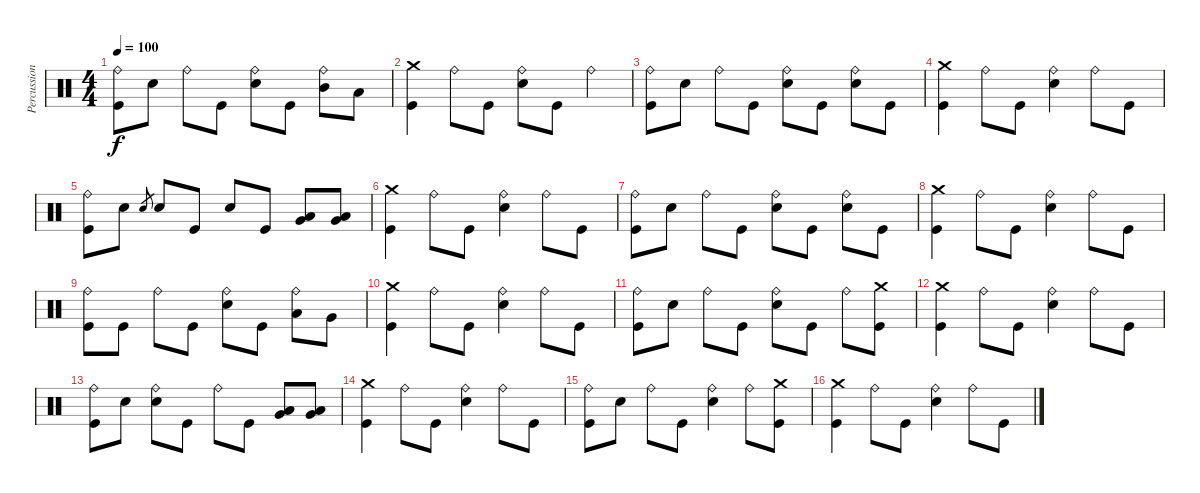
\track ("Percussions" "Percussion") {instrument percussion}
\staff {score}
\articulation defaults
\ts (4 4)
\tempo 100
\clef neutral
\ks c
("Kick (hit)" "Ride (bell)").8{dy f} "Electric Snare (hit)".8 "Ride (bell)".8 "Kick (hit)".8 ("Electric Snare (hit)" "Ride (bell)").8 "Kick (hit)".8 ("Mid Tom (hit)" "Ride (bell)").8 "Low Tom (hit)".8 |
("Kick (hit)" "Crash medium (hit)").4 "Ride (bell)".8 "Kick (hit)".8 ("Electric Snare (hit)" "Ride (bell)").8 "Kick (hit)".8 "Ride (bell)".4 |
("Kick (hit)" "Ride (bell)").8 "Electric Snare (hit)".8 "Ride (bell)".8 "Kick (hit)".8 ("Electric Snare (hit)" "Ride (bell)").8 "Kick (hit)".8 ("Electric Snare (hit)" "Ride (bell)").8 "Kick (hit)".8 |
("Kick (hit)" "Crash medium (hit)").4 "Ride (bell)".8 "Kick (hit)".8 ("Electric Snare (hit)" "Ride (bell)").4 "Ride (bell)".8 "Kick (hit)".8 |
("Kick (hit)" "Ride (bell)").8 "Electric Snare (hit)".8 "Electric Snare (hit)".8{gr} "Electric Snare (hit)".8 "Kick (hit)".8 "Electric Snare (hit)".8 "Kick (hit)".8 ("Low Tom (hit)" "Very Low Tom (hit)").8 ("Low Tom (hit)" "Very Low Tom (hit)").8 |
("Kick (hit)" "Crash medium (hit)").4 "Ride (bell)".8 "Kick (hit)".8 ("Electric Snare (hit)" "Ride (bell)").4 "Ride (bell)".8 "Kick (hit)".8 |
("Kick (hit)" "Ride (bell)").8 "Electric Snare (hit)".8 "Ride (bell)".8 "Kick (hit)".8 ("Electric Snare (hit)" "Ride (bell)").8 "Kick (hit)".8 ("Electric Snare (hit)" "Ride (bell)").8 "Kick (hit)".8 |
("Kick (hit)" "Crash medium (hit)").4 "Ride (bell)".8 "Kick (hit)".8 ("Electric Snare (hit)" "Ride (bell)").4 "Ride (bell)".8 "Kick (hit)".8 |
("Kick (hit)" "Ride (bell)").8 "Kick (hit)".8 "Ride (bell)".8 "Kick (hit)".8 ("Electric Snare (hit)" "Ride (bell)").8 "Kick (hit)".8 ("Low Tom (hit)" "Ride (bell)").8 "Very Low Tom (hit)".8 |
("Kick (hit)" "Crash medium (hit)").4 "Ride (bell)".8 "Kick (hit)".8 ("Electric Snare (hit)" "Ride (bell)").4 "Ride (bell)".8 "Kick (hit)".8 |
("Kick (hit)" "Ride (bell)").8 "Electric Snare (hit)".8 "Ride (bell)".8 "Kick (hit)".8 ("Electric Snare (hit)" "Ride (bell)").8 "Kick (hit)".8 "Ride (bell)".8 ("Kick (hit)" "Crash medium (hit)").8 |
("Kick (hit)" "Crash medium (hit)").4 "Ride (bell)".8 "Kick (hit)".8 ("Electric Snare (hit)" "Ride (bell)").4 "Ride (bell)".8 "Kick (hit)".8 |
("Kick (hit)" "Ride (bell)").8 "Electric Snare (hit)".8 ("Electric Snare (hit)" "Ride (bell)").8 "Kick (hit)".8 "Ride (bell)".8 "Kick (hit)".8 ("Low Tom (hit)" "Very Low Tom (hit)").8 ("Low Tom (hit)" "Very Low Tom (hit)").8 |
("Kick (hit)" "Crash medium (hit)").4 "Ride (bell)".8 "Kick (hit)".8 ("Electric Snare (hit)" "Ride (bell)").4 "Ride (bell)".8 "Kick (hit)".8 |
("Kick (hit)" "Ride (bell)").8 "Electric Snare (hit)".8 "Ride (bell)".8 "Kick (hit)".8 ("Electric Snare (hit)" "Ride (bell)").4 "Ride (bell)".8 ("Kick (hit)" "Crash medium (hit)").8 |
("Kick (hit)" "Crash medium (hit)").4 "Ride (bell)".8 "Kick (hit)".8 ("Electric Snare (hit)" "Ride (bell)").4 "Ride (bell)".8 "Kick (hit)".8
